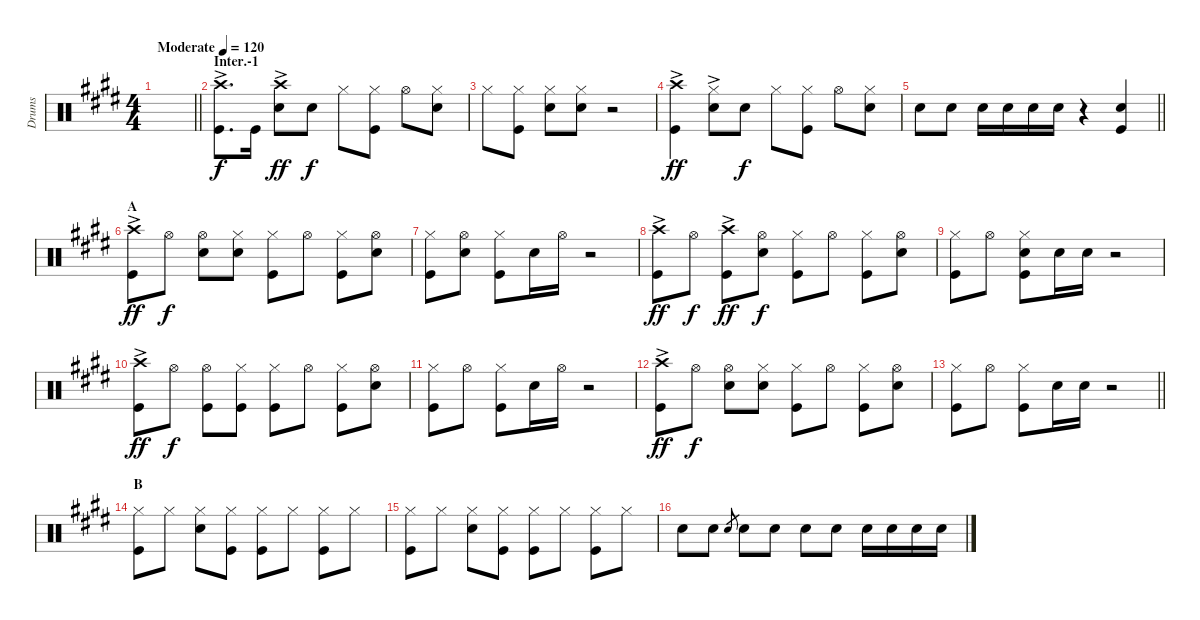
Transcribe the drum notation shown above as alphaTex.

\track ("Drums" "Drums") {instrument percussion}
\staff {score}
\articulation defaults
\ts (4 4)
\tempo (120 "Moderate")
\clef neutral
\barLineRight lightlight
\ks e
|
\section ("" "Inter.-1")
("Crash high (hit)"{ac} "Kick (hit)").8{d} "Kick (hit)".16{dy f} ("Crash high (hit)"{ac} "Snare (hit) 2").8{dy ff} "Snare (hit) 2".8{dy f} "Hi-Hat (closed)".8 ("Hi-Hat (closed)" "Kick (hit)").8 "Hi-Hat (open)".8 ("Hi-Hat (closed)" "Snare (hit) 2").8 |
"Hi-Hat (closed)".8 ("Hi-Hat (closed)" "Kick (hit)").8 ("Hi-Hat (closed)" "Snare (hit) 2").8 ("Hi-Hat (closed)" "Snare (hit) 2").8 r.2 |
("Crash high (hit)"{ac} "Kick (hit)").4{dy ff} ("Hi-Hat (closed)"{ac} "Snare (hit) 2").8 "Snare (hit) 2".8{dy f} "Hi-Hat (closed)".8 ("Hi-Hat (closed)" "Kick (hit)").8 "Hi-Hat (open)".8 ("Snare (hit) 2" "Hi-Hat (closed)").8 |
\barLineRight lightlight "Snare (hit) 2".8 "Snare (hit) 2".8 "Snare (hit) 2".16 "Snare (hit) 2".16 "Snare (hit) 2".16 "Snare (hit) 2".16
r.4 ("Snare (hit) 2" "Kick (hit)").4 |
\section ("" "A")
("Crash high (hit)"{ac} "Kick (hit)").8{dy ff} "Hi-Hat (open)".8{dy f} ("Hi-Hat (open)" "Snare (hit) 2").8 ("Hi-Hat (closed)" "Snare (hit) 2").8 ("Hi-Hat (closed)" "Kick (hit)").8 "Hi-Hat (open)".8 ("Kick (hit)" "Hi-Hat (closed)").8 ("Hi-Hat (open)" "Snare (hit) 2").8 |
("Hi-Hat (closed)" "Kick (hit)").8 ("Hi-Hat (open)" "Snare (hit) 2").8 ("Hi-Hat (closed)" "Kick (hit)").8 "Snare (hit) 2".16 "Hi-Hat (open)".16 r.2 |
("Crash high (hit)"{ac} "Kick (hit)").8{dy ff} "Hi-Hat (open)".8{dy f} ("Crash high (hit)"{ac} "Kick (hit)").8{dy ff} ("Hi-Hat (open)" "Snare (hit) 2").8{dy f} ("Hi-Hat (closed)" "Kick (hit)").8 "Hi-Hat (open)".8 ("Hi-Hat (closed)" "Kick (hit)").8 ("Hi-Hat (open)" "Snare (hit) 2").8 |
("Hi-Hat (closed)" "Kick (hit)").8 "Hi-Hat (open)".8 ("Hi-Hat (closed)" "Kick (hit)" "Snare (hit) 2").8 "Snare (hit) 2".16 "Snare (hit) 2".16 r.2 |
("Crash high (hit)"{ac} "Kick (hit)").8{dy ff} "Hi-Hat (open)".8{dy f} ("Hi-Hat (open)" "Kick (hit)").8 ("Hi-Hat (closed)" "Kick (hit)").8 ("Hi-Hat (closed)" "Kick (hit)").8 "Hi-Hat (open)".8 ("Hi-Hat (closed)" "Kick (hit)").8 ("Hi-Hat (open)" "Snare (hit) 2").8 |
("Hi-Hat (closed)" "Kick (hit)").8 "Hi-Hat (open)".8 ("Hi-Hat (closed)" "Kick (hit)").8 "Snare (hit) 2".16 "Hi-Hat (open)".16 r.2 |
("Crash high (hit)"{ac} "Kick (hit)").8{dy ff} "Hi-Hat (open)".8{dy f} ("Hi-Hat (open)" "Snare (hit) 2").8 ("Hi-Hat (closed)" "Snare (hit) 2").8 ("Hi-Hat (closed)" "Kick (hit)").8 "Hi-Hat (open)".8 ("Hi-Hat (closed)" "Kick (hit)").8 ("Hi-Hat (open)" "Snare (hit) 2").8 |
\barLineRight lightlight
("Hi-Hat (closed)" "Kick (hit)").8 "Hi-Hat (open)".8 ("Hi-Hat (closed)" "Kick (hit)").8 "Snare (hit) 2".16 "Snare (hit) 2".16 r.2 |
\section ("" "B")
("Hi-Hat (closed)" "Kick (hit)").8 "Hi-Hat (closed)".8 ("Hi-Hat (closed)" "Snare (hit) 2").8 ("Hi-Hat (closed)" "Kick (hit)").8 ("Hi-Hat (closed)" "Kick (hit)").8 "Hi-Hat (closed)".8 ("Hi-Hat (closed)" "Kick (hit)").8 "Hi-Hat (closed)".8 |
("Hi-Hat (closed)" "Kick (hit)").8 "Hi-Hat (closed)".8 ("Hi-Hat (closed)" "Snare (hit) 2").8 ("Hi-Hat (closed)" "Kick (hit)").8 ("Hi-Hat (closed)" "Kick (hit)").8 "Hi-Hat (closed)".8 ("Hi-Hat (closed)" "Kick (hit)").8 "Hi-Hat (closed)".8 |
"Snare (hit) 2".8 "Snare (hit) 2".8 "Snare (hit) 2".8{gr} "Snare (hit) 2".8 "Snare (hit) 2".8 "Snare (hit) 2".8 "Snare (hit) 2".8 "Snare (hit) 2".16 "Snare (hit) 2".16 "Snare (hit) 2".16 "Snare (hit) 2".16
